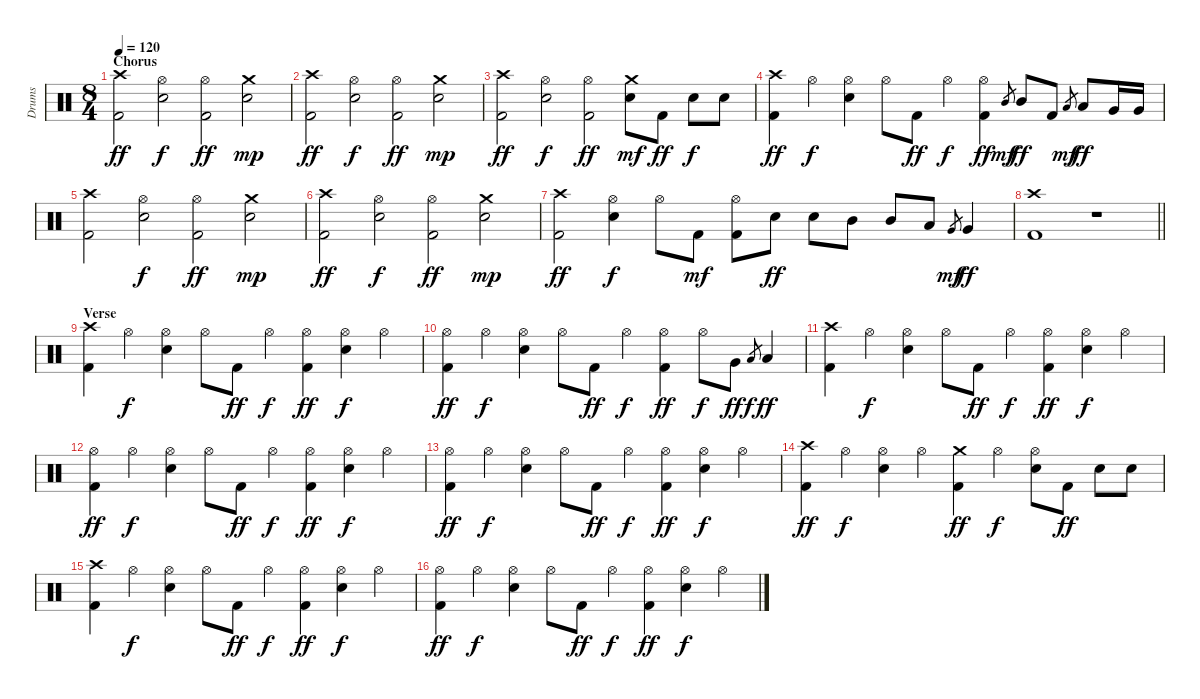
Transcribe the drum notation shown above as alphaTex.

\track ("Drums" "Drums") {instrument percussion}
\staff {score}
\articulation defaults
\ts (8 4)
\section ("" "Chorus")
\tempo 120
\clef neutral
\ks c
("Crash high (hit)" "Kick (hit) 2").2{dy ff} ("Hi-Hat (open)" "Electric Snare (hit)").2{dy f} ("Hi-Hat (open)" "Kick (hit) 2").2{dy ff} ("Crash medium (hit)" "Electric Snare (hit)").2{dy mp} |
("Crash high (hit)" "Kick (hit) 2").2{dy ff} ("Hi-Hat (open)" "Electric Snare (hit)").2{dy f} ("Hi-Hat (open)" "Kick (hit) 2").2{dy ff} ("Crash medium (hit)" "Electric Snare (hit)").2{dy mp} |
("Crash high (hit)" "Kick (hit) 2").2{dy ff} ("Hi-Hat (open)" "Electric Snare (hit)").2{dy f} ("Hi-Hat (open)" "Kick (hit) 2").2{dy ff} ("Crash medium (hit)" "Electric Snare (hit)").8{dy mf} "Kick (hit) 2".8{dy ff} "Electric Snare (hit)".8{dy f} "Electric Snare (hit)".8 |
("Crash high (hit)" "Kick (hit) 2").4{dy ff} "Hi-Hat (open)".4{dy f} ("Hi-Hat (open)" "Electric Snare (hit)").4 "Hi-Hat (open)".8 "Kick (hit) 2".8{dy ff} "Hi-Hat (open)".4{dy f} ("Hi-Hat (open)" "Kick (hit) 2").4{dy ff} "Mid Tom (hit)".8{gr dy mf} "Mid Tom (hit)".8{dy ff} "Kick (hit) 2".8 "Low Tom (hit)".8{gr dy mf} "Low Tom (hit)".8{dy ff} "Very Low Tom (hit)".16 "Very Low Tom (hit)".16 |
("Crash high (hit)" "Kick (hit) 2").2 ("Hi-Hat (open)" "Electric Snare (hit)").2{dy f} ("Hi-Hat (open)" "Kick (hit) 2").2{dy ff} ("Crash medium (hit)" "Electric Snare (hit)").2{dy mp} |
("Crash high (hit)" "Kick (hit) 2").2{dy ff} ("Hi-Hat (open)" "Electric Snare (hit)").2{dy f} ("Hi-Hat (open)" "Kick (hit) 2").2{dy ff} ("Crash medium (hit)" "Electric Snare (hit)").2{dy mp} |
("Crash high (hit)" "Kick (hit) 2").2{dy ff} ("Hi-Hat (open)" "Electric Snare (hit)").4{dy f} "Hi-Hat (open)".8 "Kick (hit) 2".8{dy mf} ("Hi-Hat (open)" "Kick (hit) 2").8 "Electric Snare (hit)".8{dy ff} "Electric Snare (hit)".8 "Mid Tom (hit)".8 "Mid Tom (hit)".8 "Low Tom (hit)".8 "Very Low Tom (hit)".8{gr dy mf} "Very Low Tom (hit)".4{dy ff} |
\barLineRight lightlight
("Crash high (hit)" "Kick (hit) 2").1 r.1 |
\section ("" "Verse")
("Crash high (hit)" "Kick (hit) 2").4 "Hi-Hat (open)".4{dy f} ("Hi-Hat (open)" "Electric Snare (hit)").4 "Hi-Hat (open)".8 "Kick (hit) 2".8{dy ff} "Hi-Hat (open)".4{dy f} ("Hi-Hat (open)" "Kick (hit) 2").4{dy ff} ("Hi-Hat (open)" "Electric Snare (hit)").4{dy f} "Hi-Hat (open)".4 |
("Hi-Hat (open)" "Kick (hit) 2").4{dy ff} "Hi-Hat (open)".4{dy f} ("Hi-Hat (open)" "Electric Snare (hit)").4 "Hi-Hat (open)".8 "Kick (hit) 2".8{dy ff} "Hi-Hat (open)".4{dy f} ("Hi-Hat (open)" "Kick (hit) 2").4{dy ff} "Hi-Hat (open)".8{dy f} "Very Low Tom (hit)".8{dy ff} "Low Floor Tom (hit)".8{gr dy f} "Low Floor Tom (hit)".4{dy ff} |
("Crash high (hit)" "Kick (hit) 2").4 "Hi-Hat (open)".4{dy f} ("Hi-Hat (open)" "Electric Snare (hit)").4 "Hi-Hat (open)".8 "Kick (hit) 2".8{dy ff} "Hi-Hat (open)".4{dy f} ("Hi-Hat (open)" "Kick (hit) 2").4{dy ff} ("Hi-Hat (open)" "Electric Snare (hit)").4{dy f} "Hi-Hat (open)".4 |
("Hi-Hat (open)" "Kick (hit) 2").4{dy ff} "Hi-Hat (open)".4{dy f} ("Hi-Hat (open)" "Electric Snare (hit)").4 "Hi-Hat (open)".8 "Kick (hit) 2".8{dy ff} "Hi-Hat (open)".4{dy f} ("Hi-Hat (open)" "Kick (hit) 2").4{dy ff} ("Hi-Hat (open)" "Electric Snare (hit)").4{dy f} "Hi-Hat (open)".4 |
("Hi-Hat (open)" "Kick (hit) 2").4{dy ff} "Hi-Hat (open)".4{dy f} ("Hi-Hat (open)" "Electric Snare (hit)").4 "Hi-Hat (open)".8 "Kick (hit) 2".8{dy ff} "Hi-Hat (open)".4{dy f} ("Hi-Hat (open)" "Kick (hit) 2").4{dy ff} ("Hi-Hat (open)" "Electric Snare (hit)").4{dy f} "Hi-Hat (open)".4 |
("Crash high (hit)" "Kick (hit) 2").4{dy ff} "Hi-Hat (open)".4{dy f} ("Hi-Hat (open)" "Electric Snare (hit)").4 "Hi-Hat (open)".4 ("Crash medium (hit)" "Kick (hit) 2").4{dy ff} "Hi-Hat (open)".4{dy f} ("Hi-Hat (open)" "Electric Snare (hit)").8 "Kick (hit) 2".8{dy ff} "Electric Snare (hit)".8 "Electric Snare (hit)".8 |
("Crash high (hit)" "Kick (hit) 2").4 "Hi-Hat (open)".4{dy f} ("Hi-Hat (open)" "Electric Snare (hit)").4 "Hi-Hat (open)".8 "Kick (hit) 2".8{dy ff} "Hi-Hat (open)".4{dy f} ("Hi-Hat (open)" "Kick (hit) 2").4{dy ff} ("Hi-Hat (open)" "Electric Snare (hit)").4{dy f} "Hi-Hat (open)".4 |
("Hi-Hat (open)" "Kick (hit) 2").4{dy ff} "Hi-Hat (open)".4{dy f} ("Hi-Hat (open)" "Electric Snare (hit)").4 "Hi-Hat (open)".8 "Kick (hit) 2".8{dy ff} "Hi-Hat (open)".4{dy f} ("Hi-Hat (open)" "Kick (hit) 2").4{dy ff} ("Hi-Hat (open)" "Electric Snare (hit)").4{dy f} "Hi-Hat (open)".4
